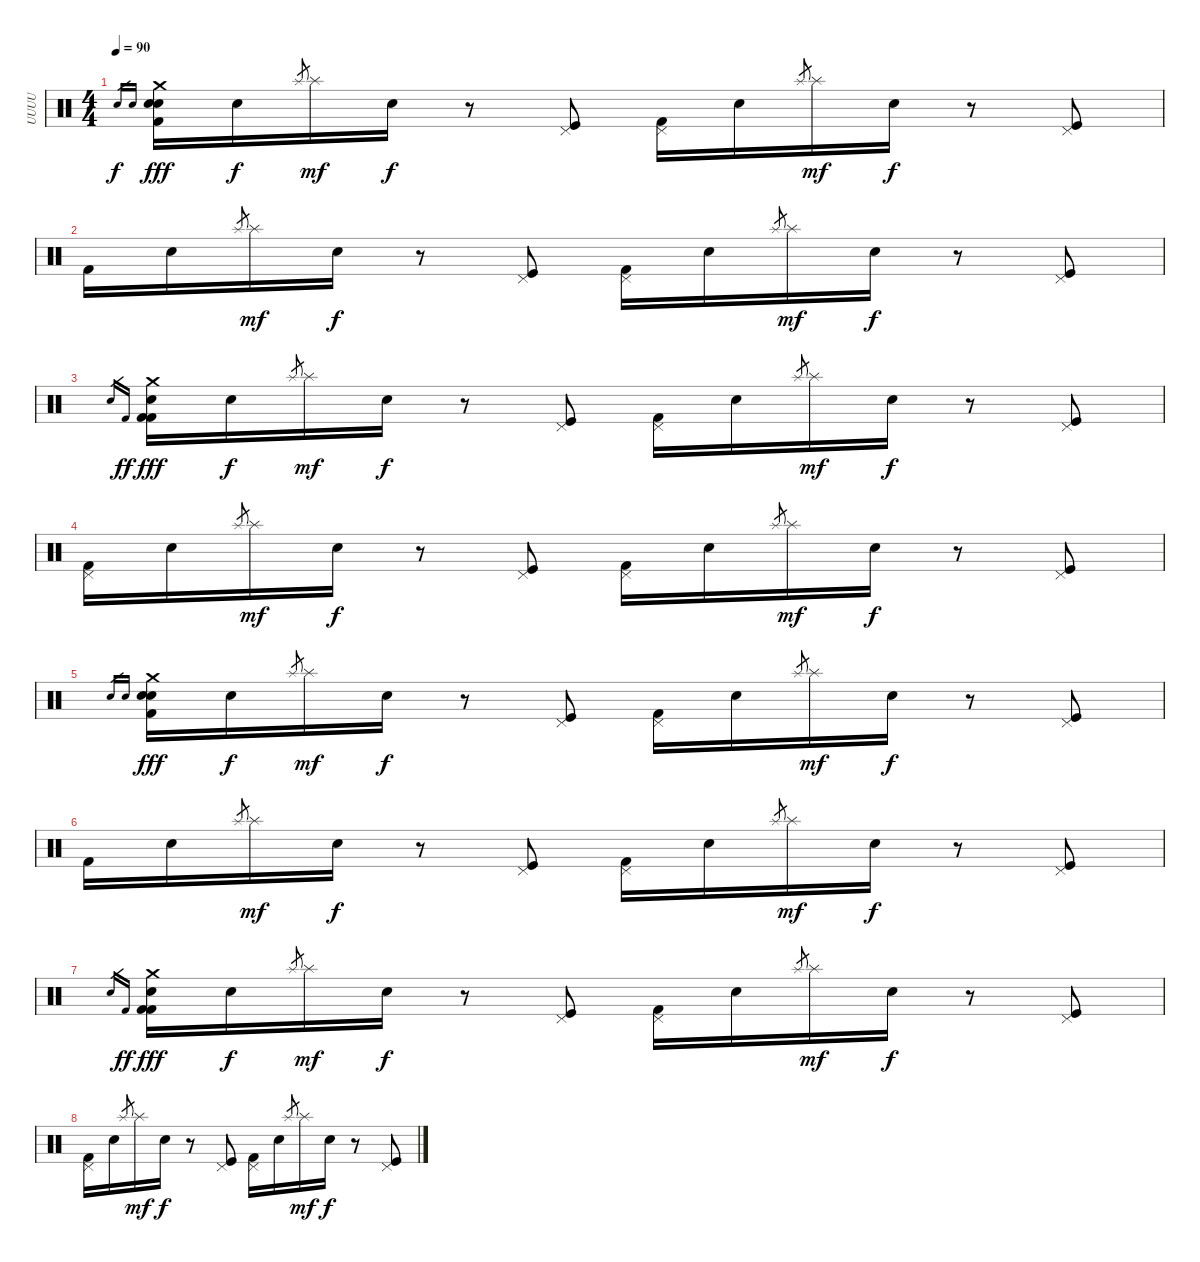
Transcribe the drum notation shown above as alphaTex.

\track ("UUUU" "UUUU") {instrument percussion}
\staff {score}
\articulation defaults
\ts (4 4)
\tempo 90
\clef neutral
\ks c "Electric Snare (hit)".16{gr dy f} "Snare (hit) 2".16{gr}
("Crash medium (hit)" "Kick (hit) 2" "Electric Snare (hit)" "Snare (hit) 2").16{dy fff} "Snare (hit) 2".16{dy f} "Splash (hit)".8{gr} "Splash (hit)".16{dy mf} "Electric Snare (hit)".16{dy f} r.8 ("Pedal Hi-Hat (hit)" "Kick (hit)").8 ("Pedal Hi-Hat (hit)" "Kick (hit) 2").16 "Snare (hit) 2".16 "Splash (hit)"{h}.8{gr} "Splash (hit)".16{dy mf} "Electric Snare (hit)".16{dy f} r.8 ("Pedal Hi-Hat (hit)" "Kick (hit)").8 |
"Kick (hit) 2".16 "Snare (hit) 2".16 "Splash (hit)".8{gr} "Splash (hit)".16{dy mf} "Electric Snare (hit)".16{dy f} r.8 ("Pedal Hi-Hat (hit)" "Kick (hit)").8 ("Pedal Hi-Hat (hit)" "Kick (hit) 2").16 "Snare (hit) 2".16 "Splash (hit)".8{gr} "Splash (hit)".16{dy mf} "Electric Snare (hit)".16{dy f} r.8 ("Pedal Hi-Hat (hit)" "Kick (hit)").8 |
"Electric Snare (hit)".16{gr} "Kick (hit) 2".16{gr dy ff} ("Crash medium (hit)" "Kick (hit) 2" "Electric Snare (hit)" "Kick (hit) 2").16{dy fff} "Snare (hit) 2".16{dy f} "Splash (hit)".8{gr} "Splash (hit)".16{dy mf} "Electric Snare (hit)".16{dy f} r.8 ("Pedal Hi-Hat (hit)" "Kick (hit)").8 ("Pedal Hi-Hat (hit)" "Kick (hit) 2").16 "Snare (hit) 2".16 "Splash (hit)".8{gr} "Splash (hit)".16{dy mf} "Electric Snare (hit)".16{dy f} r.8 ("Pedal Hi-Hat (hit)" "Kick (hit)").8 |
("Pedal Hi-Hat (hit)" "Kick (hit) 2").16 "Snare (hit) 2".16 "Splash (hit)".8{gr} "Splash (hit)".16{dy mf} "Electric Snare (hit)".16{dy f} r.8 ("Pedal Hi-Hat (hit)" "Kick (hit)").8 ("Pedal Hi-Hat (hit)" "Kick (hit) 2").16 "Snare (hit) 2".16 "Splash (hit)"{h}.8{gr} "Splash (hit)".16{dy mf} "Electric Snare (hit)".16{dy f} r.8 ("Pedal Hi-Hat (hit)" "Kick (hit)").8 |
"Electric Snare (hit)".16{gr} "Snare (hit) 2".16{gr} ("Crash medium (hit)" "Kick (hit) 2" "Electric Snare (hit)" "Snare (hit) 2").16{dy fff} "Snare (hit) 2".16{dy f} "Splash (hit)".8{gr} "Splash (hit)".16{dy mf} "Electric Snare (hit)".16{dy f} r.8 ("Pedal Hi-Hat (hit)" "Kick (hit)").8 ("Pedal Hi-Hat (hit)" "Kick (hit) 2").16 "Snare (hit) 2".16 "Splash (hit)"{h}.8{gr} "Splash (hit)".16{dy mf} "Electric Snare (hit)".16{dy f} r.8 ("Pedal Hi-Hat (hit)" "Kick (hit)").8 |
"Kick (hit) 2".16 "Snare (hit) 2".16 "Splash (hit)".8{gr} "Splash (hit)".16{dy mf} "Electric Snare (hit)".16{dy f} r.8 ("Pedal Hi-Hat (hit)" "Kick (hit)").8 ("Pedal Hi-Hat (hit)" "Kick (hit) 2").16 "Snare (hit) 2".16 "Splash (hit)".8{gr} "Splash (hit)".16{dy mf} "Electric Snare (hit)".16{dy f} r.8 ("Pedal Hi-Hat (hit)" "Kick (hit)").8 |
"Electric Snare (hit)".16{gr} "Kick (hit) 2".16{gr dy ff} ("Crash medium (hit)" "Kick (hit) 2" "Electric Snare (hit)" "Kick (hit) 2").16{dy fff} "Snare (hit) 2".16{dy f} "Splash (hit)".8{gr} "Splash (hit)".16{dy mf} "Electric Snare (hit)".16{dy f} r.8 ("Pedal Hi-Hat (hit)" "Kick (hit)").8 ("Pedal Hi-Hat (hit)" "Kick (hit) 2").16 "Snare (hit) 2".16 "Splash (hit)".8{gr} "Splash (hit)".16{dy mf} "Electric Snare (hit)".16{dy f} r.8 ("Pedal Hi-Hat (hit)" "Kick (hit)").8 |
("Pedal Hi-Hat (hit)" "Kick (hit) 2").16 "Snare (hit) 2".16 "Splash (hit)".8{gr} "Splash (hit)".16{dy mf} "Electric Snare (hit)".16{dy f} r.8 ("Pedal Hi-Hat (hit)" "Kick (hit)").8 ("Pedal Hi-Hat (hit)" "Kick (hit) 2").16 "Snare (hit) 2".16 "Splash (hit)"{h}.8{gr} "Splash (hit)".16{dy mf} "Electric Snare (hit)".16{dy f} r.8 ("Pedal Hi-Hat (hit)" "Kick (hit)").8
